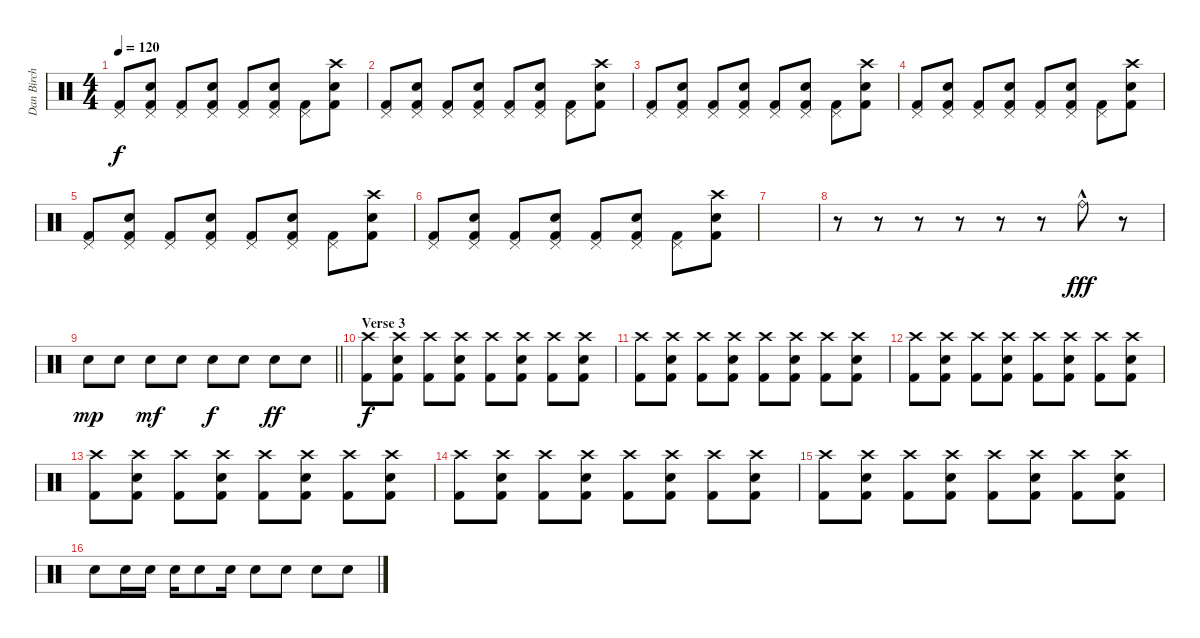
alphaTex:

\track ("Dan Birch" "Dan Birch") {instrument percussion}
\staff {score}
\articulation defaults
\ts (4 4)
\tempo 120
\clef neutral
\ks c
("Pedal Hi-Hat (hit)" "Kick (hit) 2").8{dy f} ("Pedal Hi-Hat (hit)" "Snare (hit) 2" "Kick (hit) 2").8 ("Pedal Hi-Hat (hit)" "Kick (hit) 2").8 ("Pedal Hi-Hat (hit)" "Snare (hit) 2" "Kick (hit) 2").8 ("Pedal Hi-Hat (hit)" "Kick (hit) 2").8 ("Pedal Hi-Hat (hit)" "Snare (hit) 2" "Kick (hit) 2").8 ("Pedal Hi-Hat (hit)" "Kick (hit) 2").8 ("Crash high (hit)" "Snare (hit) 2" "Kick (hit) 2").8 |
("Pedal Hi-Hat (hit)" "Kick (hit) 2").8 ("Pedal Hi-Hat (hit)" "Snare (hit) 2" "Kick (hit) 2").8 ("Pedal Hi-Hat (hit)" "Kick (hit) 2").8 ("Pedal Hi-Hat (hit)" "Snare (hit) 2" "Kick (hit) 2").8 ("Pedal Hi-Hat (hit)" "Kick (hit) 2").8 ("Pedal Hi-Hat (hit)" "Snare (hit) 2" "Kick (hit) 2").8 ("Pedal Hi-Hat (hit)" "Kick (hit) 2").8 ("Crash high (hit)" "Snare (hit) 2" "Kick (hit) 2").8 |
("Pedal Hi-Hat (hit)" "Kick (hit) 2").8 ("Pedal Hi-Hat (hit)" "Snare (hit) 2" "Kick (hit) 2").8 ("Pedal Hi-Hat (hit)" "Kick (hit) 2").8 ("Pedal Hi-Hat (hit)" "Snare (hit) 2" "Kick (hit) 2").8 ("Pedal Hi-Hat (hit)" "Kick (hit) 2").8 ("Pedal Hi-Hat (hit)" "Snare (hit) 2" "Kick (hit) 2").8 ("Pedal Hi-Hat (hit)" "Kick (hit) 2").8 ("Crash high (hit)" "Snare (hit) 2" "Kick (hit) 2").8 |
("Pedal Hi-Hat (hit)" "Kick (hit) 2").8 ("Pedal Hi-Hat (hit)" "Snare (hit) 2" "Kick (hit) 2").8 ("Pedal Hi-Hat (hit)" "Kick (hit) 2").8 ("Pedal Hi-Hat (hit)" "Snare (hit) 2" "Kick (hit) 2").8 ("Pedal Hi-Hat (hit)" "Kick (hit) 2").8 ("Pedal Hi-Hat (hit)" "Snare (hit) 2" "Kick (hit) 2").8 ("Pedal Hi-Hat (hit)" "Kick (hit) 2").8 ("Crash high (hit)" "Snare (hit) 2" "Kick (hit) 2").8 |
("Pedal Hi-Hat (hit)" "Kick (hit) 2").8 ("Pedal Hi-Hat (hit)" "Snare (hit) 2" "Kick (hit) 2").8 ("Pedal Hi-Hat (hit)" "Kick (hit) 2").8 ("Pedal Hi-Hat (hit)" "Snare (hit) 2" "Kick (hit) 2").8 ("Pedal Hi-Hat (hit)" "Kick (hit) 2").8 ("Pedal Hi-Hat (hit)" "Snare (hit) 2" "Kick (hit) 2").8 ("Pedal Hi-Hat (hit)" "Kick (hit) 2").8 ("Crash high (hit)" "Snare (hit) 2" "Kick (hit) 2").8 |
("Pedal Hi-Hat (hit)" "Kick (hit) 2").8 ("Pedal Hi-Hat (hit)" "Snare (hit) 2" "Kick (hit) 2").8 ("Pedal Hi-Hat (hit)" "Kick (hit) 2").8 ("Pedal Hi-Hat (hit)" "Snare (hit) 2" "Kick (hit) 2").8 ("Pedal Hi-Hat (hit)" "Kick (hit) 2").8 ("Pedal Hi-Hat (hit)" "Snare (hit) 2" "Kick (hit) 2").8 ("Pedal Hi-Hat (hit)" "Kick (hit) 2").8 ("Crash high (hit)" "Snare (hit) 2" "Kick (hit) 2").8 |
|
r.8 r.8 r.8 r.8 r.8 r.8 "Ride (bell)"{hac}.8{dy fff} r.8 |
\barLineRight lightlight "Snare (hit) 2".8{dy mp} "Snare (hit) 2".8 "Snare (hit) 2".8{dy mf} "Snare (hit) 2".8 "Snare (hit) 2".8{dy f} "Snare (hit) 2".8 "Snare (hit) 2".8{dy ff} "Snare (hit) 2".8
|
\section ("" "Verse 3")
("Crash high (hit)" "Kick (hit) 2").8{dy f} ("Crash high (hit)" "Snare (hit) 2" "Kick (hit) 2").8 ("Crash high (hit)" "Kick (hit) 2").8 ("Crash high (hit)" "Snare (hit) 2" "Kick (hit) 2").8 ("Crash high (hit)" "Kick (hit) 2").8 ("Crash high (hit)" "Snare (hit) 2" "Kick (hit) 2").8 ("Crash high (hit)" "Kick (hit) 2").8 ("Crash high (hit)" "Snare (hit) 2" "Kick (hit) 2").8 |
("Crash high (hit)" "Kick (hit) 2").8 ("Crash high (hit)" "Snare (hit) 2" "Kick (hit) 2").8 ("Crash high (hit)" "Kick (hit) 2").8 ("Crash high (hit)" "Snare (hit) 2" "Kick (hit) 2").8 ("Crash high (hit)" "Kick (hit) 2").8 ("Crash high (hit)" "Snare (hit) 2" "Kick (hit) 2").8 ("Crash high (hit)" "Kick (hit) 2").8 ("Crash high (hit)" "Snare (hit) 2" "Kick (hit) 2").8 |
("Crash high (hit)" "Kick (hit) 2").8 ("Crash high (hit)" "Snare (hit) 2" "Kick (hit) 2").8 ("Crash high (hit)" "Kick (hit) 2").8 ("Crash high (hit)" "Snare (hit) 2" "Kick (hit) 2").8 ("Crash high (hit)" "Kick (hit) 2").8 ("Crash high (hit)" "Snare (hit) 2" "Kick (hit) 2").8 ("Crash high (hit)" "Kick (hit) 2").8 ("Crash high (hit)" "Snare (hit) 2" "Kick (hit) 2").8 |
("Crash high (hit)" "Kick (hit) 2").8 ("Crash high (hit)" "Snare (hit) 2" "Kick (hit) 2").8 ("Crash high (hit)" "Kick (hit) 2").8 ("Crash high (hit)" "Snare (hit) 2" "Kick (hit) 2").8 ("Crash high (hit)" "Kick (hit) 2").8 ("Crash high (hit)" "Snare (hit) 2" "Kick (hit) 2").8 ("Crash high (hit)" "Kick (hit) 2").8 ("Crash high (hit)" "Snare (hit) 2" "Kick (hit) 2").8 |
("Crash high (hit)" "Kick (hit) 2").8 ("Crash high (hit)" "Snare (hit) 2" "Kick (hit) 2").8 ("Crash high (hit)" "Kick (hit) 2").8 ("Crash high (hit)" "Snare (hit) 2" "Kick (hit) 2").8 ("Crash high (hit)" "Kick (hit) 2").8 ("Crash high (hit)" "Snare (hit) 2" "Kick (hit) 2").8 ("Crash high (hit)" "Kick (hit) 2").8 ("Crash high (hit)" "Snare (hit) 2" "Kick (hit) 2").8 |
("Crash high (hit)" "Kick (hit) 2").8 ("Crash high (hit)" "Snare (hit) 2" "Kick (hit) 2").8 ("Crash high (hit)" "Kick (hit) 2").8 ("Crash high (hit)" "Snare (hit) 2" "Kick (hit) 2").8 ("Crash high (hit)" "Kick (hit) 2").8 ("Crash high (hit)" "Snare (hit) 2" "Kick (hit) 2").8 ("Crash high (hit)" "Kick (hit) 2").8 ("Crash high (hit)" "Snare (hit) 2" "Kick (hit) 2").8 |
"Snare (hit) 2".8 "Snare (hit) 2".16 "Snare (hit) 2".16 "Snare (hit) 2".16 "Snare (hit) 2".8 "Snare (hit) 2".16 "Snare (hit) 2".8 "Snare (hit) 2".8 "Snare (hit) 2".8 "Snare (hit) 2".8
